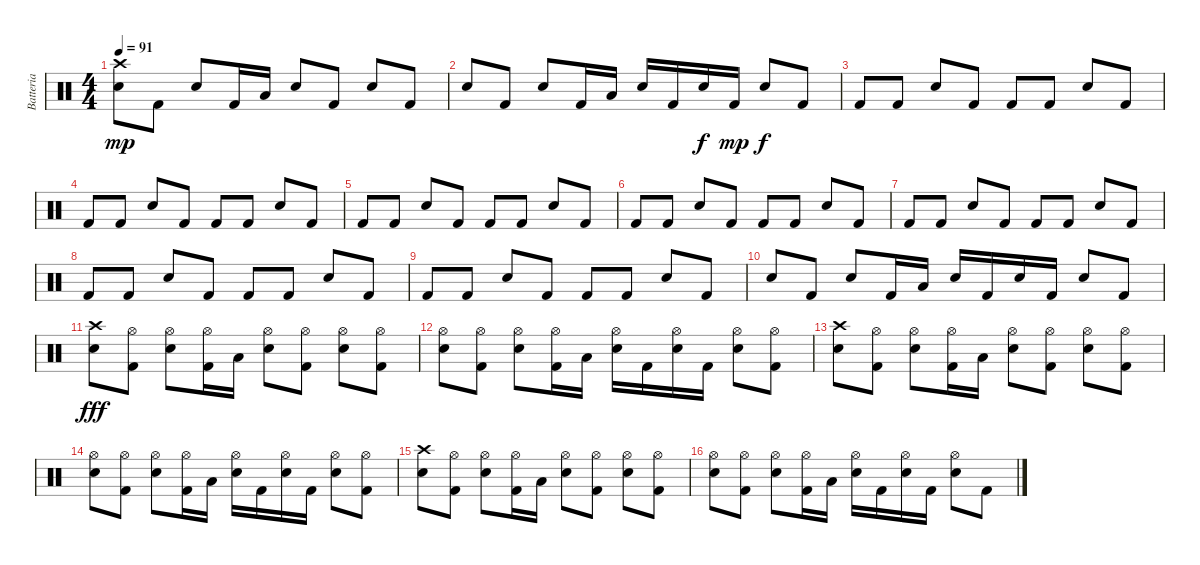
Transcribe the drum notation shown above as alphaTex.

\track ("Batteria" "Batteria") {instrument percussion}
\staff {score}
\articulation defaults
\ts (4 4)
\tempo 91
\clef neutral
\ks c
("Crash high (hit)" "Electric Snare (hit)").8{dy mp} "Kick (hit) 2".8 "Electric Snare (hit)".8 "Kick (hit) 2".16 "Low Floor Tom (hit)".16 "Electric Snare (hit)".8 "Kick (hit) 2".8 "Electric Snare (hit)".8 "Kick (hit) 2".8 |
"Electric Snare (hit)".8 "Kick (hit) 2".8 "Electric Snare (hit)".8 "Kick (hit) 2".16 "Low Floor Tom (hit)".16 "Electric Snare (hit)".16 "Kick (hit) 2".16 "Electric Snare (hit)".16{dy f} "Kick (hit) 2".16{dy mp} "Electric Snare (hit)".8{dy f} "Kick (hit) 2".8 |
"Kick (hit) 2".8 "Kick (hit) 2".8 "Electric Snare (hit)".8 "Kick (hit) 2".8 "Kick (hit) 2".8 "Kick (hit) 2".8 "Electric Snare (hit)".8 "Kick (hit) 2".8 |
"Kick (hit) 2".8 "Kick (hit) 2".8 "Electric Snare (hit)".8 "Kick (hit) 2".8 "Kick (hit) 2".8 "Kick (hit) 2".8 "Electric Snare (hit)".8 "Kick (hit) 2".8 |
"Kick (hit) 2".8 "Kick (hit) 2".8 "Electric Snare (hit)".8 "Kick (hit) 2".8 "Kick (hit) 2".8 "Kick (hit) 2".8 "Electric Snare (hit)".8 "Kick (hit) 2".8 |
"Kick (hit) 2".8 "Kick (hit) 2".8 "Electric Snare (hit)".8 "Kick (hit) 2".8 "Kick (hit) 2".8 "Kick (hit) 2".8 "Electric Snare (hit)".8 "Kick (hit) 2".8 |
"Kick (hit) 2".8 "Kick (hit) 2".8 "Electric Snare (hit)".8 "Kick (hit) 2".8 "Kick (hit) 2".8 "Kick (hit) 2".8 "Electric Snare (hit)".8 "Kick (hit) 2".8 |
"Kick (hit) 2".8 "Kick (hit) 2".8 "Electric Snare (hit)".8 "Kick (hit) 2".8 "Kick (hit) 2".8 "Kick (hit) 2".8 "Electric Snare (hit)".8 "Kick (hit) 2".8 |
"Kick (hit) 2".8 "Kick (hit) 2".8 "Electric Snare (hit)".8 "Kick (hit) 2".8 "Kick (hit) 2".8 "Kick (hit) 2".8 "Electric Snare (hit)".8 "Kick (hit) 2".8 |
"Electric Snare (hit)".8 "Kick (hit) 2".8 "Electric Snare (hit)".8 "Kick (hit) 2".16 "Low Floor Tom (hit)".16 "Electric Snare (hit)".16 "Kick (hit) 2".16 "Electric Snare (hit)".16 "Kick (hit) 2".16 "Electric Snare (hit)".8 "Kick (hit) 2".8 |
("Crash high (hit)" "Electric Snare (hit)").8{dy fff} ("Hi-Hat (open)" "Kick (hit) 2").8 ("Hi-Hat (open)" "Electric Snare (hit)").8 ("Hi-Hat (open)" "Kick (hit) 2").16 "Low Floor Tom (hit)".16 ("Hi-Hat (open)" "Electric Snare (hit)").8 ("Hi-Hat (open)" "Kick (hit) 2").8 ("Hi-Hat (open)" "Electric Snare (hit)").8 ("Hi-Hat (open)" "Kick (hit) 2").8 |
("Hi-Hat (open)" "Electric Snare (hit)").8 ("Hi-Hat (open)" "Kick (hit) 2").8 ("Hi-Hat (open)" "Electric Snare (hit)").8 ("Hi-Hat (open)" "Kick (hit) 2").16 "Low Floor Tom (hit)".16 ("Hi-Hat (open)" "Electric Snare (hit)").16 "Kick (hit) 2".16 ("Hi-Hat (open)" "Electric Snare (hit)").16 "Kick (hit) 2".16 ("Hi-Hat (open)" "Electric Snare (hit)").8 ("Hi-Hat (open)" "Kick (hit) 2").8 |
("Crash high (hit)" "Electric Snare (hit)").8 ("Hi-Hat (open)" "Kick (hit) 2").8 ("Hi-Hat (open)" "Electric Snare (hit)").8 ("Hi-Hat (open)" "Kick (hit) 2").16 "Low Floor Tom (hit)".16 ("Hi-Hat (open)" "Electric Snare (hit)").8 ("Hi-Hat (open)" "Kick (hit) 2").8 ("Hi-Hat (open)" "Electric Snare (hit)").8 ("Hi-Hat (open)" "Kick (hit) 2").8 |
("Hi-Hat (open)" "Electric Snare (hit)").8 ("Hi-Hat (open)" "Kick (hit) 2").8 ("Hi-Hat (open)" "Electric Snare (hit)").8 ("Hi-Hat (open)" "Kick (hit) 2").16 "Low Floor Tom (hit)".16 ("Hi-Hat (open)" "Electric Snare (hit)").16 "Kick (hit) 2".16 ("Hi-Hat (open)" "Electric Snare (hit)").16 "Kick (hit) 2".16 ("Hi-Hat (open)" "Electric Snare (hit)").8 ("Hi-Hat (open)" "Kick (hit) 2").8 |
("Crash high (hit)" "Electric Snare (hit)").8 ("Hi-Hat (open)" "Kick (hit) 2").8 ("Hi-Hat (open)" "Electric Snare (hit)").8 ("Hi-Hat (open)" "Kick (hit) 2").16 "Low Floor Tom (hit)".16 ("Hi-Hat (open)" "Electric Snare (hit)").8 ("Hi-Hat (open)" "Kick (hit) 2").8 ("Hi-Hat (open)" "Electric Snare (hit)").8 ("Hi-Hat (open)" "Kick (hit) 2").8 |
("Hi-Hat (open)" "Electric Snare (hit)").8 ("Hi-Hat (open)" "Kick (hit) 2").8 ("Hi-Hat (open)" "Electric Snare (hit)").8 ("Hi-Hat (open)" "Kick (hit) 2").16 "Low Floor Tom (hit)".16 ("Hi-Hat (open)" "Electric Snare (hit)").16 "Kick (hit) 2".16 ("Hi-Hat (open)" "Electric Snare (hit)").16 "Kick (hit) 2".16 ("Hi-Hat (open)" "Electric Snare (hit)").8 "Kick (hit) 2".8
